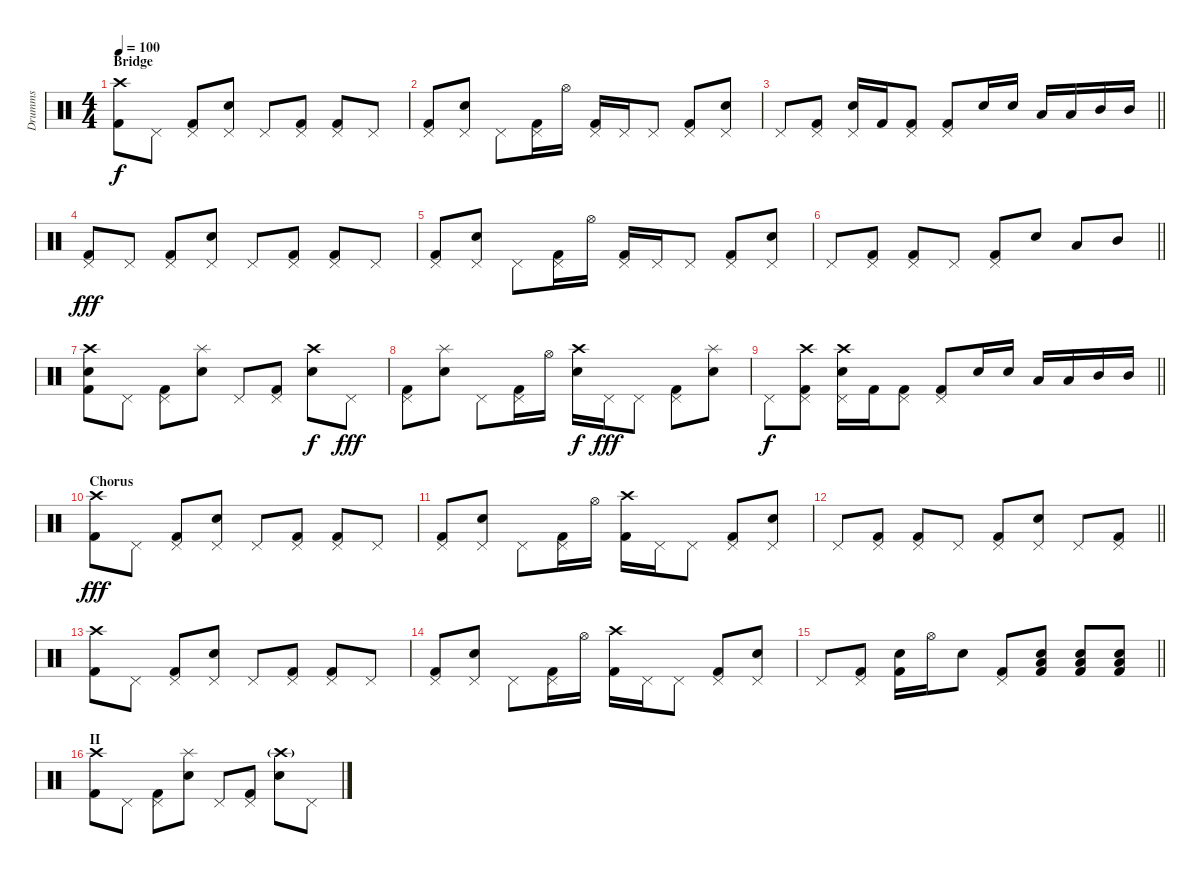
\track ("Drumms" "Drumms") {instrument percussion}
\staff {score}
\articulation defaults
\ts (4 4)
\section ("" "Bridge")
\tempo 100
\clef neutral
\ks c
("Crash high (hit)" "Kick (hit) 2").8{dy f} "Pedal Hi-Hat (hit)".8 ("Pedal Hi-Hat (hit)" "Kick (hit) 2").8 ("Pedal Hi-Hat (hit)" "Snare (hit) 2").8 "Pedal Hi-Hat (hit)".8 ("Pedal Hi-Hat (hit)" "Kick (hit) 2").8 ("Pedal Hi-Hat (hit)" "Kick (hit) 2").8 "Pedal Hi-Hat (hit)".8 |
("Pedal Hi-Hat (hit)" "Kick (hit) 2").8 ("Pedal Hi-Hat (hit)" "Snare (hit) 2").8 "Pedal Hi-Hat (hit)".8 ("Pedal Hi-Hat (hit)" "Kick (hit) 2").16 "Hi-Hat (open)".16 ("Pedal Hi-Hat (hit)" "Kick (hit) 2").16 "Pedal Hi-Hat (hit)".16 "Pedal Hi-Hat (hit)".8 ("Pedal Hi-Hat (hit)" "Kick (hit) 2").8 ("Pedal Hi-Hat (hit)" "Snare (hit) 2").8 |
\barLineRight lightlight "Pedal Hi-Hat (hit)".8
("Pedal Hi-Hat (hit)" "Kick (hit) 2").8 ("Pedal Hi-Hat (hit)" "Snare (hit) 2").16 "Kick (hit) 2".16 ("Pedal Hi-Hat (hit)" "Kick (hit) 2").8 ("Pedal Hi-Hat (hit)" "Kick (hit) 2").8 "Snare (hit) 2".16 "Snare (hit) 2".16 "Low Tom (hit)".16 "Low Tom (hit)".16 "Mid Tom (hit)".16 "Mid Tom (hit)".16 |
("Pedal Hi-Hat (hit)" "Kick (hit) 2").8{dy fff} "Pedal Hi-Hat (hit)".8 ("Pedal Hi-Hat (hit)" "Kick (hit) 2").8 ("Pedal Hi-Hat (hit)" "Snare (hit) 2").8 "Pedal Hi-Hat (hit)".8 ("Pedal Hi-Hat (hit)" "Kick (hit) 2").8 ("Pedal Hi-Hat (hit)" "Kick (hit) 2").8 "Pedal Hi-Hat (hit)".8 |
("Pedal Hi-Hat (hit)" "Kick (hit) 2").8 ("Pedal Hi-Hat (hit)" "Snare (hit) 2").8 "Pedal Hi-Hat (hit)".8 ("Pedal Hi-Hat (hit)" "Kick (hit) 2").16 "Hi-Hat (open)".16 ("Pedal Hi-Hat (hit)" "Kick (hit) 2").16 "Pedal Hi-Hat (hit)".16 "Pedal Hi-Hat (hit)".8 ("Pedal Hi-Hat (hit)" "Kick (hit) 2").8 ("Pedal Hi-Hat (hit)" "Snare (hit) 2").8 |
\barLineRight lightlight "Pedal Hi-Hat (hit)".8
("Pedal Hi-Hat (hit)" "Kick (hit) 2").8 ("Pedal Hi-Hat (hit)" "Kick (hit) 2").8 "Pedal Hi-Hat (hit)".8 ("Pedal Hi-Hat (hit)" "Kick (hit) 2").8 "Snare (hit) 2".8 "Low Tom (hit)".8 "Mid Tom (hit)".8 |
("Crash high (hit)" "Snare (hit) 2" "Kick (hit) 2").8 "Pedal Hi-Hat (hit)".8 ("Pedal Hi-Hat (hit)" "Kick (hit) 2").8 ("Splash (hit)" "Snare (hit) 2").8 "Pedal Hi-Hat (hit)".8 ("Pedal Hi-Hat (hit)" "Kick (hit) 2").8 ("Crash high (hit)" "Snare (hit) 2").8{dy f} "Pedal Hi-Hat (hit)".8{dy fff} |
("Pedal Hi-Hat (hit)" "Kick (hit) 2").8 ("Splash (hit)" "Snare (hit) 2").8 "Pedal Hi-Hat (hit)".8 ("Pedal Hi-Hat (hit)" "Kick (hit) 2").16 "Hi-Hat (open)".16 ("Crash high (hit)" "Snare (hit) 2").16{dy f} "Pedal Hi-Hat (hit)".16{dy fff} "Pedal Hi-Hat (hit)".8 ("Pedal Hi-Hat (hit)" "Kick (hit) 2").8 ("Splash (hit)" "Snare (hit) 2").8 |
\barLineRight lightlight "Pedal Hi-Hat (hit)".8{dy f}
("Crash high (hit)" "Pedal Hi-Hat (hit)" "Kick (hit) 2").8 ("Crash high (hit)" "Pedal Hi-Hat (hit)" "Snare (hit) 2").16 "Kick (hit) 2".16 ("Pedal Hi-Hat (hit)" "Kick (hit) 2").8 ("Pedal Hi-Hat (hit)" "Kick (hit) 2").8 "Snare (hit) 2".16 "Snare (hit) 2".16 "Low Tom (hit)".16 "Low Tom (hit)".16 "Mid Tom (hit)".16 "Mid Tom (hit)".16 |
\section ("" "Chorus")
("Crash high (hit)" "Kick (hit) 2").8{dy fff} "Pedal Hi-Hat (hit)".8 ("Pedal Hi-Hat (hit)" "Kick (hit) 2").8 ("Pedal Hi-Hat (hit)" "Snare (hit) 2").8 "Pedal Hi-Hat (hit)".8 ("Pedal Hi-Hat (hit)" "Kick (hit) 2").8 ("Pedal Hi-Hat (hit)" "Kick (hit) 2").8 "Pedal Hi-Hat (hit)".8 |
("Pedal Hi-Hat (hit)" "Kick (hit) 2").8 ("Pedal Hi-Hat (hit)" "Snare (hit) 2").8 "Pedal Hi-Hat (hit)".8 ("Pedal Hi-Hat (hit)" "Kick (hit) 2").16 "Hi-Hat (open)".16 ("Crash high (hit)" "Kick (hit) 2").16 "Pedal Hi-Hat (hit)".16 "Pedal Hi-Hat (hit)".8 ("Pedal Hi-Hat (hit)" "Kick (hit) 2").8 ("Pedal Hi-Hat (hit)" "Snare (hit) 2").8 |
\barLineRight lightlight "Pedal Hi-Hat (hit)".8
("Pedal Hi-Hat (hit)" "Kick (hit) 2").8 ("Pedal Hi-Hat (hit)" "Kick (hit) 2").8 "Pedal Hi-Hat (hit)".8 ("Pedal Hi-Hat (hit)" "Kick (hit) 2").8 ("Pedal Hi-Hat (hit)" "Snare (hit) 2").8 "Pedal Hi-Hat (hit)".8 ("Pedal Hi-Hat (hit)" "Kick (hit) 2").8 |
("Crash high (hit)" "Kick (hit) 2").8 "Pedal Hi-Hat (hit)".8 ("Pedal Hi-Hat (hit)" "Kick (hit) 2").8 ("Pedal Hi-Hat (hit)" "Snare (hit) 2").8 "Pedal Hi-Hat (hit)".8 ("Pedal Hi-Hat (hit)" "Kick (hit) 2").8 ("Pedal Hi-Hat (hit)" "Kick (hit) 2").8 "Pedal Hi-Hat (hit)".8 |
("Pedal Hi-Hat (hit)" "Kick (hit) 2").8 ("Pedal Hi-Hat (hit)" "Snare (hit) 2").8 "Pedal Hi-Hat (hit)".8 ("Pedal Hi-Hat (hit)" "Kick (hit) 2").16 "Hi-Hat (open)".16 ("Crash high (hit)" "Kick (hit) 2").16 "Pedal Hi-Hat (hit)".16 "Pedal Hi-Hat (hit)".8 ("Pedal Hi-Hat (hit)" "Kick (hit) 2").8 ("Pedal Hi-Hat (hit)" "Snare (hit) 2").8 |
\barLineRight lightlight "Pedal Hi-Hat (hit)".8
("Pedal Hi-Hat (hit)" "Kick (hit) 2").8 ("Snare (hit) 2" "Kick (hit) 2").16 "Hi-Hat (open)".16 "Snare (hit) 2".8 ("Pedal Hi-Hat (hit)" "Kick (hit) 2").8 ("Low Tom (hit)" "Snare (hit) 2" "Kick (hit) 2").8 ("Low Tom (hit)" "Snare (hit) 2" "Kick (hit) 2").8 ("Low Tom (hit)" "Snare (hit) 2" "Kick (hit) 2").8 |
\section ("" "II")
("Crash high (hit)" "Kick (hit) 2").8 "Pedal Hi-Hat (hit)".8 ("Pedal Hi-Hat (hit)" "Kick (hit) 2").8 ("Splash (hit)" "Snare (hit) 2").8 "Pedal Hi-Hat (hit)".8 ("Pedal Hi-Hat (hit)" "Kick (hit) 2").8 ("Crash high (hit)"{g} "Snare (hit) 2").8 "Pedal Hi-Hat (hit)".8
